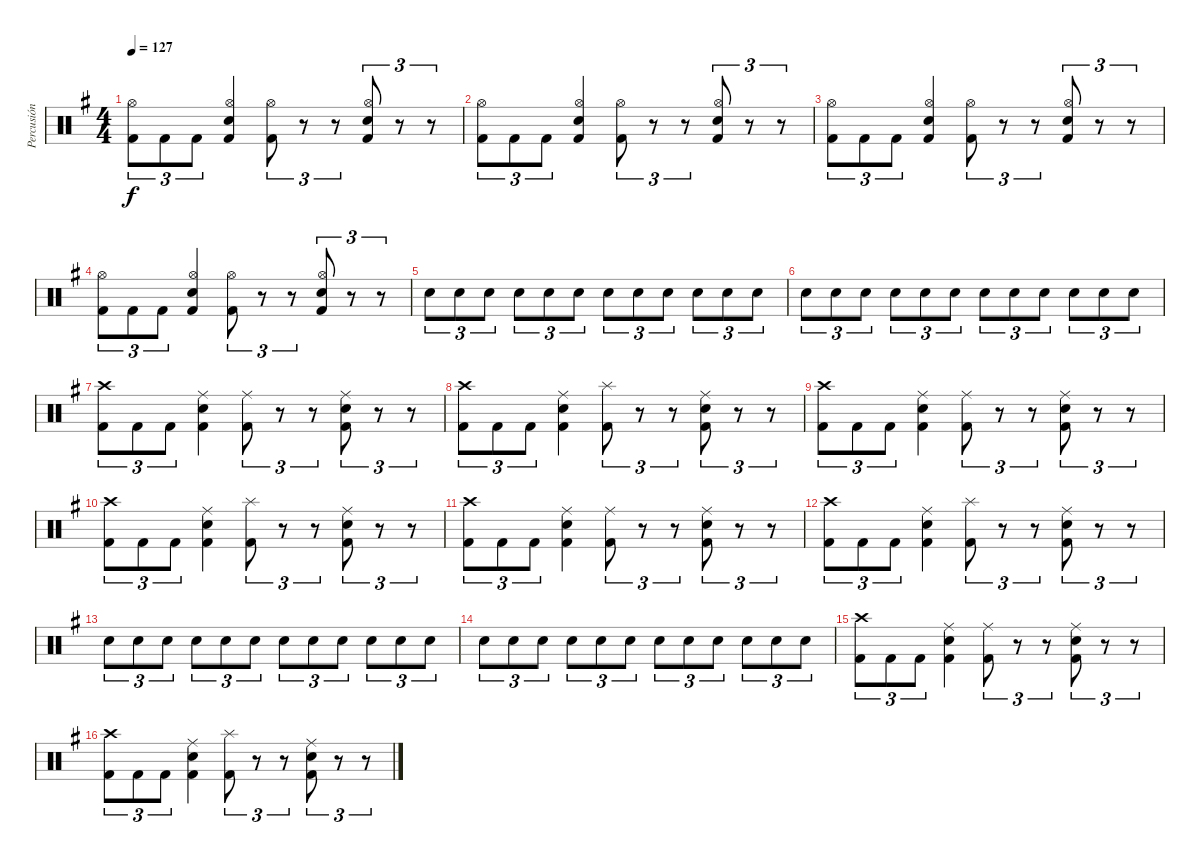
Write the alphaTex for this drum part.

\track ("Percusión" "Percusión") {instrument percussion}
\staff {score}
\articulation defaults
\ts (4 4)
\tempo 127
\clef neutral
\ks eminor
("Kick (hit) 2" "Hi-Hat (open)").8{tu (3 2) dy f} "Kick (hit) 2".8{tu (3 2)} "Kick (hit) 2".8{tu (3 2)} ("Kick (hit) 2" "Hi-Hat (open)" "Electric Snare (hit)").4 ("Hi-Hat (open)" "Kick (hit) 2").8{tu (3 2)} r.8{tu (3 2)} r.8{tu (3 2)} ("Hi-Hat (open)" "Kick (hit) 2" "Electric Snare (hit)").8{tu (3 2)} r.8{tu (3 2)} r.8{tu (3 2)} |
("Kick (hit) 2" "Hi-Hat (open)").8{tu (3 2)} "Kick (hit) 2".8{tu (3 2)} "Kick (hit) 2".8{tu (3 2)} ("Kick (hit) 2" "Hi-Hat (open)" "Electric Snare (hit)").4 ("Hi-Hat (open)" "Kick (hit) 2").8{tu (3 2)} r.8{tu (3 2)} r.8{tu (3 2)} ("Hi-Hat (open)" "Kick (hit) 2" "Electric Snare (hit)").8{tu (3 2)} r.8{tu (3 2)} r.8{tu (3 2)} |
("Kick (hit) 2" "Hi-Hat (open)").8{tu (3 2)} "Kick (hit) 2".8{tu (3 2)} "Kick (hit) 2".8{tu (3 2)} ("Kick (hit) 2" "Hi-Hat (open)" "Electric Snare (hit)").4 ("Hi-Hat (open)" "Kick (hit) 2").8{tu (3 2)} r.8{tu (3 2)} r.8{tu (3 2)} ("Hi-Hat (open)" "Kick (hit) 2" "Electric Snare (hit)").8{tu (3 2)} r.8{tu (3 2)} r.8{tu (3 2)} |
("Kick (hit) 2" "Hi-Hat (open)").8{tu (3 2)} "Kick (hit) 2".8{tu (3 2)} "Kick (hit) 2".8{tu (3 2)} ("Kick (hit) 2" "Hi-Hat (open)" "Electric Snare (hit)").4 ("Hi-Hat (open)" "Kick (hit) 2").8{tu (3 2)} r.8{tu (3 2)} r.8{tu (3 2)} ("Hi-Hat (open)" "Kick (hit) 2" "Electric Snare (hit)").8{tu (3 2)} r.8{tu (3 2)} r.8{tu (3 2)} |
"Electric Snare (hit)".8{tu (3 2)} "Electric Snare (hit)".8{tu (3 2)} "Electric Snare (hit)".8{tu (3 2)} "Electric Snare (hit)".8{tu (3 2)} "Electric Snare (hit)".8{tu (3 2)} "Electric Snare (hit)".8{tu (3 2)} "Electric Snare (hit)".8{tu (3 2)} "Electric Snare (hit)".8{tu (3 2)} "Electric Snare (hit)".8{tu (3 2)} "Electric Snare (hit)".8{tu (3 2)} "Electric Snare (hit)".8{tu (3 2)} "Electric Snare (hit)".8{tu (3 2)} |
"Electric Snare (hit)".8{tu (3 2)} "Electric Snare (hit)".8{tu (3 2)} "Electric Snare (hit)".8{tu (3 2)} "Electric Snare (hit)".8{tu (3 2)} "Electric Snare (hit)".8{tu (3 2)} "Electric Snare (hit)".8{tu (3 2)} "Electric Snare (hit)".8{tu (3 2)} "Electric Snare (hit)".8{tu (3 2)} "Electric Snare (hit)".8{tu (3 2)} "Electric Snare (hit)".8{tu (3 2)} "Electric Snare (hit)".8{tu (3 2)} "Electric Snare (hit)".8{tu (3 2)} |
("Kick (hit) 2" "Crash high (hit)").8{tu (3 2)} "Kick (hit) 2".8{tu (3 2)} "Kick (hit) 2".8{tu (3 2)} ("Kick (hit) 2" "Ride (middle)" "Electric Snare (hit)").4 ("Ride (middle)" "Kick (hit) 2").8{tu (3 2)} r.8{tu (3 2)} r.8{tu (3 2)} ("Ride (middle)" "Kick (hit) 2" "Electric Snare (hit)").8{tu (3 2)} r.8{tu (3 2)} r.8{tu (3 2)} |
("Kick (hit) 2" "Crash high (hit)").8{tu (3 2)} "Kick (hit) 2".8{tu (3 2)} "Kick (hit) 2".8{tu (3 2)} ("Kick (hit) 2" "Ride (middle)" "Electric Snare (hit)").4 ("Splash (hit)" "Kick (hit) 2").8{tu (3 2)} r.8{tu (3 2)} r.8{tu (3 2)} ("Ride (middle)" "Kick (hit) 2" "Electric Snare (hit)").8{tu (3 2)} r.8{tu (3 2)} r.8{tu (3 2)} |
("Kick (hit) 2" "Crash high (hit)").8{tu (3 2)} "Kick (hit) 2".8{tu (3 2)} "Kick (hit) 2".8{tu (3 2)} ("Kick (hit) 2" "Ride (middle)" "Electric Snare (hit)").4 ("Ride (middle)" "Kick (hit) 2").8{tu (3 2)} r.8{tu (3 2)} r.8{tu (3 2)} ("Ride (middle)" "Kick (hit) 2" "Electric Snare (hit)").8{tu (3 2)} r.8{tu (3 2)} r.8{tu (3 2)} |
("Kick (hit) 2" "Crash high (hit)").8{tu (3 2)} "Kick (hit) 2".8{tu (3 2)} "Kick (hit) 2".8{tu (3 2)} ("Kick (hit) 2" "Ride (middle)" "Electric Snare (hit)").4 ("Splash (hit)" "Kick (hit) 2").8{tu (3 2)} r.8{tu (3 2)} r.8{tu (3 2)} ("Ride (middle)" "Kick (hit) 2" "Electric Snare (hit)").8{tu (3 2)} r.8{tu (3 2)} r.8{tu (3 2)} |
("Kick (hit) 2" "Crash high (hit)").8{tu (3 2)} "Kick (hit) 2".8{tu (3 2)} "Kick (hit) 2".8{tu (3 2)} ("Kick (hit) 2" "Ride (middle)" "Electric Snare (hit)").4 ("Ride (middle)" "Kick (hit) 2").8{tu (3 2)} r.8{tu (3 2)} r.8{tu (3 2)} ("Ride (middle)" "Kick (hit) 2" "Electric Snare (hit)").8{tu (3 2)} r.8{tu (3 2)} r.8{tu (3 2)} |
("Kick (hit) 2" "Crash high (hit)").8{tu (3 2)} "Kick (hit) 2".8{tu (3 2)} "Kick (hit) 2".8{tu (3 2)} ("Kick (hit) 2" "Ride (middle)" "Electric Snare (hit)").4 ("Splash (hit)" "Kick (hit) 2").8{tu (3 2)} r.8{tu (3 2)} r.8{tu (3 2)} ("Ride (middle)" "Kick (hit) 2" "Electric Snare (hit)").8{tu (3 2)} r.8{tu (3 2)} r.8{tu (3 2)} |
"Electric Snare (hit)".8{tu (3 2)} "Electric Snare (hit)".8{tu (3 2)} "Electric Snare (hit)".8{tu (3 2)} "Electric Snare (hit)".8{tu (3 2)} "Electric Snare (hit)".8{tu (3 2)} "Electric Snare (hit)".8{tu (3 2)} "Electric Snare (hit)".8{tu (3 2)} "Electric Snare (hit)".8{tu (3 2)} "Electric Snare (hit)".8{tu (3 2)} "Electric Snare (hit)".8{tu (3 2)} "Electric Snare (hit)".8{tu (3 2)} "Electric Snare (hit)".8{tu (3 2)} |
"Electric Snare (hit)".8{tu (3 2)} "Electric Snare (hit)".8{tu (3 2)} "Electric Snare (hit)".8{tu (3 2)} "Electric Snare (hit)".8{tu (3 2)} "Electric Snare (hit)".8{tu (3 2)} "Electric Snare (hit)".8{tu (3 2)} "Electric Snare (hit)".8{tu (3 2)} "Electric Snare (hit)".8{tu (3 2)} "Electric Snare (hit)".8{tu (3 2)} "Electric Snare (hit)".8{tu (3 2)} "Electric Snare (hit)".8{tu (3 2)} "Electric Snare (hit)".8{tu (3 2)} |
("Kick (hit) 2" "Crash high (hit)").8{tu (3 2)} "Kick (hit) 2".8{tu (3 2)} "Kick (hit) 2".8{tu (3 2)} ("Kick (hit) 2" "Ride (middle)" "Electric Snare (hit)").4 ("Ride (middle)" "Kick (hit) 2").8{tu (3 2)} r.8{tu (3 2)} r.8{tu (3 2)} ("Ride (middle)" "Kick (hit) 2" "Electric Snare (hit)").8{tu (3 2)} r.8{tu (3 2)} r.8{tu (3 2)} |
("Kick (hit) 2" "Crash high (hit)").8{tu (3 2)} "Kick (hit) 2".8{tu (3 2)} "Kick (hit) 2".8{tu (3 2)} ("Kick (hit) 2" "Ride (middle)" "Electric Snare (hit)").4 ("Splash (hit)" "Kick (hit) 2").8{tu (3 2)} r.8{tu (3 2)} r.8{tu (3 2)} ("Ride (middle)" "Kick (hit) 2" "Electric Snare (hit)").8{tu (3 2)} r.8{tu (3 2)} r.8{tu (3 2)}
